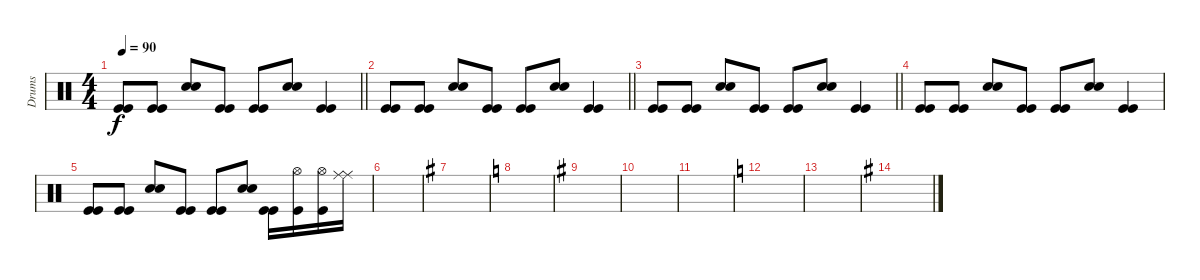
\track ("Drums" "Drums") {instrument percussion}
\staff {score}
\articulation defaults
\ts (4 4)
\tempo 90
\clef neutral
\barLineRight lightlight
\ks c
("Kick (hit)" "Kick (hit)").8{dy f} ("Kick (hit)" "Kick (hit)").8 ("Electric Snare (hit)" "Electric Snare (hit)").8 ("Kick (hit)" "Kick (hit)").8 ("Kick (hit)" "Kick (hit)").8 ("Electric Snare (hit)" "Electric Snare (hit)").8 ("Kick (hit)" "Kick (hit)").4 |
\barLineRight lightlight
("Kick (hit)" "Kick (hit)").8 ("Kick (hit)" "Kick (hit)").8 ("Electric Snare (hit)" "Electric Snare (hit)").8 ("Kick (hit)" "Kick (hit)").8 ("Kick (hit)" "Kick (hit)").8 ("Electric Snare (hit)" "Electric Snare (hit)").8 ("Kick (hit)" "Kick (hit)").4 |
\barLineRight lightlight
("Kick (hit)" "Kick (hit)").8 ("Kick (hit)" "Kick (hit)").8 ("Electric Snare (hit)" "Electric Snare (hit)").8 ("Kick (hit)" "Kick (hit)").8 ("Kick (hit)" "Kick (hit)").8 ("Electric Snare (hit)" "Electric Snare (hit)").8 ("Kick (hit)" "Kick (hit)").4 |
("Kick (hit)" "Kick (hit)").8 ("Kick (hit)" "Kick (hit)").8 ("Electric Snare (hit)" "Electric Snare (hit)").8 ("Kick (hit)" "Kick (hit)").8 ("Kick (hit)" "Kick (hit)").8 ("Electric Snare (hit)" "Electric Snare (hit)").8 ("Kick (hit)" "Kick (hit)").4 |
("Kick (hit)" "Kick (hit)").8 ("Kick (hit)" "Kick (hit)").8 ("Electric Snare (hit)" "Electric Snare (hit)").8 ("Kick (hit)" "Kick (hit)").8 ("Kick (hit)" "Kick (hit)").8 ("Electric Snare (hit)" "Electric Snare (hit)").8 ("Kick (hit)" "Kick (hit)").16 ("Hi-Hat (open)" "Kick (hit)").16 ("Hi-Hat (open)" "Kick (hit)").16 ("Ride (middle)" "Ride (middle)").16 |
|
\ks g
|
\ks c
|
\ks g
|
|
|
\ks c
|
|
\ks g
